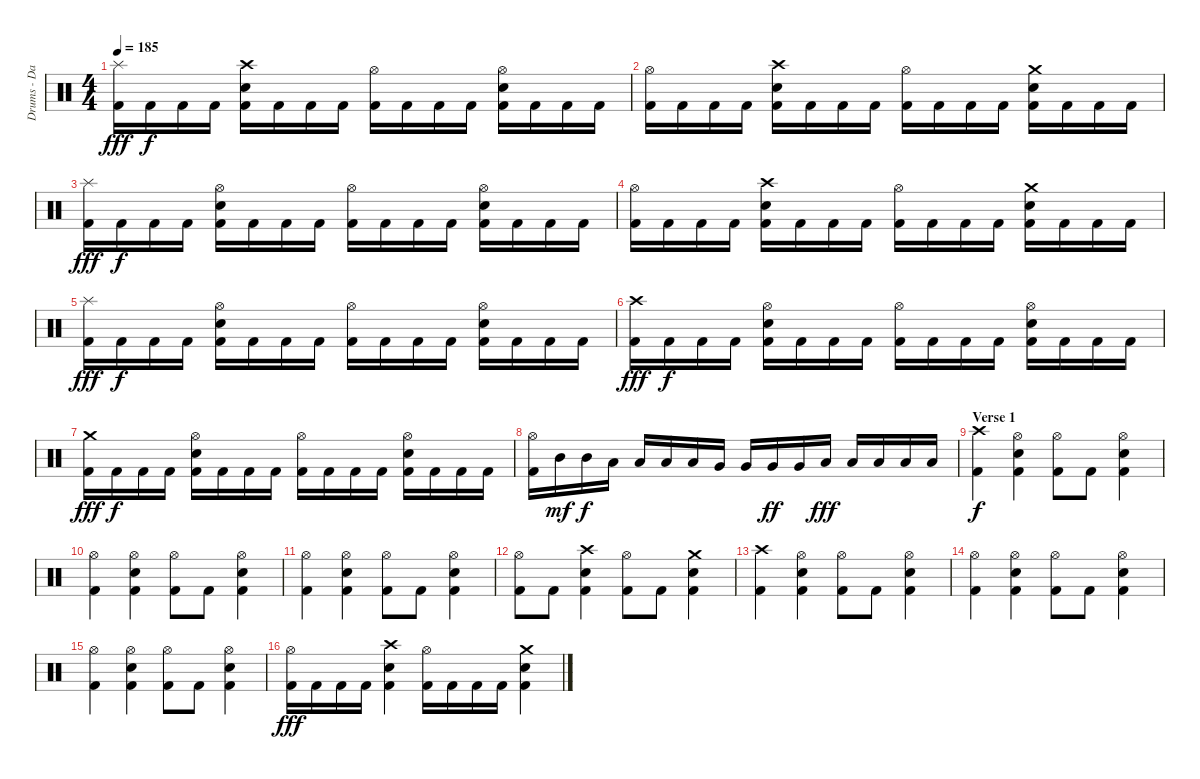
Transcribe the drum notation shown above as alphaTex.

\track ("Drums - Daniel Zimmermann" "Drums - Da") {instrument percussion}
\staff {score}
\articulation defaults
\ts (4 4)
\section ("" "")
\tempo 185
\clef neutral
\ks c
("Kick (hit) 2" "Splash (hit)").16{dy fff} "Kick (hit) 2".16{dy f} "Kick (hit) 2".16 "Kick (hit) 2".16 ("Kick (hit) 2" "Electric Snare (hit)" "Crash high (hit)").16 "Kick (hit) 2".16 "Kick (hit) 2".16 "Kick (hit) 2".16 ("Kick (hit) 2" "Hi-Hat (open)").16 "Kick (hit) 2".16 "Kick (hit) 2".16 "Kick (hit) 2".16 ("Kick (hit) 2" "Electric Snare (hit)" "Hi-Hat (open)").16 "Kick (hit) 2".16 "Kick (hit) 2".16 "Kick (hit) 2".16 |
("Kick (hit) 2" "Hi-Hat (open)").16 "Kick (hit) 2".16 "Kick (hit) 2".16 "Kick (hit) 2".16 ("Kick (hit) 2" "Electric Snare (hit)" "Crash high (hit)").16 "Kick (hit) 2".16 "Kick (hit) 2".16 "Kick (hit) 2".16 ("Kick (hit) 2" "Hi-Hat (open)").16 "Kick (hit) 2".16 "Kick (hit) 2".16 "Kick (hit) 2".16 ("Kick (hit) 2" "Electric Snare (hit)" "Crash medium (hit)").16 "Kick (hit) 2".16 "Kick (hit) 2".16 "Kick (hit) 2".16 |
("Kick (hit) 2" "Splash (hit)").16{dy fff} "Kick (hit) 2".16{dy f} "Kick (hit) 2".16 "Kick (hit) 2".16 ("Kick (hit) 2" "Electric Snare (hit)" "Hi-Hat (open)").16 "Kick (hit) 2".16 "Kick (hit) 2".16 "Kick (hit) 2".16 ("Kick (hit) 2" "Hi-Hat (open)").16 "Kick (hit) 2".16 "Kick (hit) 2".16 "Kick (hit) 2".16 ("Kick (hit) 2" "Electric Snare (hit)" "Hi-Hat (open)").16 "Kick (hit) 2".16 "Kick (hit) 2".16 "Kick (hit) 2".16 |
("Kick (hit) 2" "Hi-Hat (open)").16 "Kick (hit) 2".16 "Kick (hit) 2".16 "Kick (hit) 2".16 ("Kick (hit) 2" "Electric Snare (hit)" "Crash high (hit)").16 "Kick (hit) 2".16 "Kick (hit) 2".16 "Kick (hit) 2".16 ("Kick (hit) 2" "Hi-Hat (open)").16 "Kick (hit) 2".16 "Kick (hit) 2".16 "Kick (hit) 2".16 ("Kick (hit) 2" "Electric Snare (hit)" "Crash medium (hit)").16 "Kick (hit) 2".16 "Kick (hit) 2".16 "Kick (hit) 2".16 |
("Kick (hit) 2" "Splash (hit)").16{dy fff} "Kick (hit) 2".16{dy f} "Kick (hit) 2".16 "Kick (hit) 2".16 ("Kick (hit) 2" "Electric Snare (hit)" "Hi-Hat (open)").16 "Kick (hit) 2".16 "Kick (hit) 2".16 "Kick (hit) 2".16 ("Kick (hit) 2" "Hi-Hat (open)").16 "Kick (hit) 2".16 "Kick (hit) 2".16 "Kick (hit) 2".16 ("Kick (hit) 2" "Electric Snare (hit)" "Hi-Hat (open)").16 "Kick (hit) 2".16 "Kick (hit) 2".16 "Kick (hit) 2".16 |
("Kick (hit) 2" "Crash high (hit)").16{dy fff} "Kick (hit) 2".16{dy f} "Kick (hit) 2".16 "Kick (hit) 2".16 ("Kick (hit) 2" "Electric Snare (hit)" "Hi-Hat (open)").16 "Kick (hit) 2".16 "Kick (hit) 2".16 "Kick (hit) 2".16 ("Kick (hit) 2" "Hi-Hat (open)").16 "Kick (hit) 2".16 "Kick (hit) 2".16 "Kick (hit) 2".16 ("Kick (hit) 2" "Electric Snare (hit)" "Hi-Hat (open)").16 "Kick (hit) 2".16 "Kick (hit) 2".16 "Kick (hit) 2".16 |
("Kick (hit) 2" "Crash medium (hit)").16{dy fff} "Kick (hit) 2".16{dy f} "Kick (hit) 2".16 "Kick (hit) 2".16 ("Kick (hit) 2" "Electric Snare (hit)" "Hi-Hat (open)").16 "Kick (hit) 2".16 "Kick (hit) 2".16 "Kick (hit) 2".16 ("Kick (hit) 2" "Hi-Hat (open)").16 "Kick (hit) 2".16 "Kick (hit) 2".16 "Kick (hit) 2".16 ("Kick (hit) 2" "Electric Snare (hit)" "Hi-Hat (open)").16 "Kick (hit) 2".16 "Kick (hit) 2".16 "Kick (hit) 2".16 |
("Kick (hit) 2" "Hi-Hat (open)").16 "Mid Tom (hit)".16{dy mf} "Mid Tom (hit)".16{dy f} "Low Tom (hit)".16 "Low Tom (hit)".16 "Low Tom (hit)".16 "Low Tom (hit)".16 "Very Low Tom (hit)".16 "Very Low Tom (hit)".16 "Very Low Tom (hit)".16{dy ff} "Very Low Tom (hit)".16 "Low Floor Tom (hit)".16{dy fff} "Low Floor Tom (hit)".16 "Low Floor Tom (hit)".16 "Low Floor Tom (hit)".16 "Low Floor Tom (hit)".16 |
\section ("" "Verse 1")
("Kick (hit) 2" "Crash high (hit)").4{dy f} ("Kick (hit) 2" "Electric Snare (hit)" "Hi-Hat (open)").4 ("Kick (hit) 2" "Hi-Hat (open)").8 "Kick (hit) 2".8 ("Kick (hit) 2" "Electric Snare (hit)" "Hi-Hat (open)").4 |
("Kick (hit) 2" "Hi-Hat (open)").4 ("Kick (hit) 2" "Electric Snare (hit)" "Hi-Hat (open)").4 ("Kick (hit) 2" "Hi-Hat (open)").8 "Kick (hit) 2".8 ("Kick (hit) 2" "Electric Snare (hit)" "Hi-Hat (open)").4 |
("Kick (hit) 2" "Hi-Hat (open)").4 ("Kick (hit) 2" "Electric Snare (hit)" "Hi-Hat (open)").4 ("Kick (hit) 2" "Hi-Hat (open)").8 "Kick (hit) 2".8 ("Kick (hit) 2" "Electric Snare (hit)" "Hi-Hat (open)").4 |
("Kick (hit) 2" "Hi-Hat (open)").8 "Kick (hit) 2".8 ("Kick (hit) 2" "Electric Snare (hit)" "Crash high (hit)").4 ("Kick (hit) 2" "Hi-Hat (open)").8 "Kick (hit) 2".8 ("Kick (hit) 2" "Electric Snare (hit)" "Crash medium (hit)").4 |
("Kick (hit) 2" "Crash high (hit)").4 ("Kick (hit) 2" "Electric Snare (hit)" "Hi-Hat (open)").4 ("Kick (hit) 2" "Hi-Hat (open)").8 "Kick (hit) 2".8 ("Kick (hit) 2" "Electric Snare (hit)" "Hi-Hat (open)").4 |
("Kick (hit) 2" "Hi-Hat (open)").4 ("Kick (hit) 2" "Electric Snare (hit)" "Hi-Hat (open)").4 ("Kick (hit) 2" "Hi-Hat (open)").8 "Kick (hit) 2".8 ("Kick (hit) 2" "Electric Snare (hit)" "Hi-Hat (open)").4 |
("Kick (hit) 2" "Hi-Hat (open)").4 ("Kick (hit) 2" "Electric Snare (hit)" "Hi-Hat (open)").4 ("Kick (hit) 2" "Hi-Hat (open)").8 "Kick (hit) 2".8 ("Kick (hit) 2" "Electric Snare (hit)" "Hi-Hat (open)").4 |
("Kick (hit) 2" "Hi-Hat (open)").16{dy fff} "Kick (hit) 2".16 "Kick (hit) 2".16 "Kick (hit) 2".16 ("Kick (hit) 2" "Electric Snare (hit)" "Crash high (hit)").4 ("Kick (hit) 2" "Hi-Hat (open)").16 "Kick (hit) 2".16 "Kick (hit) 2".16 "Kick (hit) 2".16 ("Kick (hit) 2" "Electric Snare (hit)" "Crash medium (hit)").4
